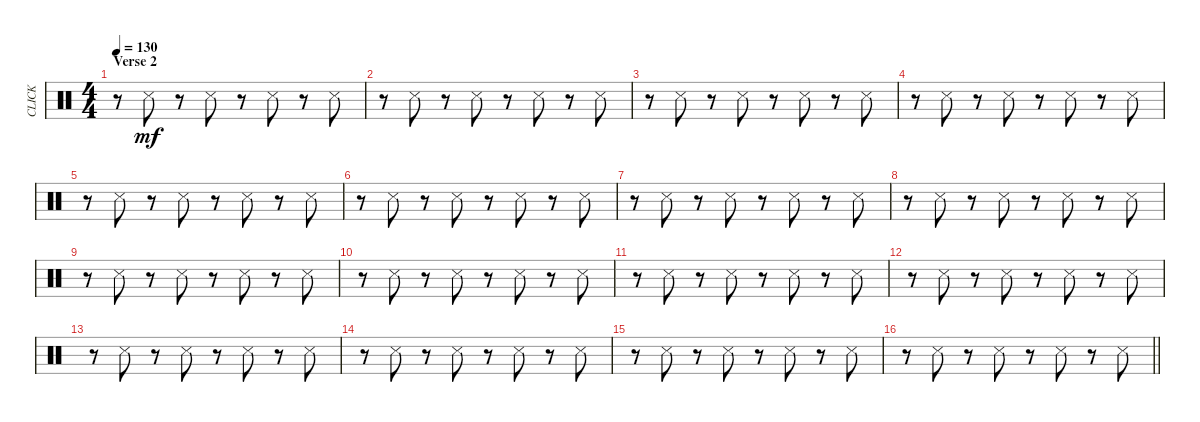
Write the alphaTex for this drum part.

\track ("CLICK" "CLICK") {instrument percussion}
\staff {score}
\articulation defaults
\ts (4 4)
\section ("" "Verse 2")
\tempo 130
\clef neutral
\ks c
r.8{dy mf} "Snare (side stick) 3".8 r.8 "Snare (side stick) 3".8 r.8 "Snare (side stick) 3".8 r.8 "Snare (side stick) 3".8 |
r.8 "Snare (side stick) 3".8 r.8 "Snare (side stick) 3".8 r.8 "Snare (side stick) 3".8 r.8 "Snare (side stick) 3".8 |
r.8 "Snare (side stick) 3".8 r.8 "Snare (side stick) 3".8 r.8 "Snare (side stick) 3".8 r.8 "Snare (side stick) 3".8 |
r.8 "Snare (side stick) 3".8 r.8 "Snare (side stick) 3".8 r.8 "Snare (side stick) 3".8 r.8 "Snare (side stick) 3".8 |
r.8 "Snare (side stick) 3".8 r.8 "Snare (side stick) 3".8 r.8 "Snare (side stick) 3".8 r.8 "Snare (side stick) 3".8 |
r.8 "Snare (side stick) 3".8 r.8 "Snare (side stick) 3".8 r.8 "Snare (side stick) 3".8 r.8 "Snare (side stick) 3".8 |
r.8 "Snare (side stick) 3".8 r.8 "Snare (side stick) 3".8 r.8 "Snare (side stick) 3".8 r.8 "Snare (side stick) 3".8 |
r.8 "Snare (side stick) 3".8 r.8 "Snare (side stick) 3".8 r.8 "Snare (side stick) 3".8 r.8 "Snare (side stick) 3".8 |
r.8 "Snare (side stick) 3".8 r.8 "Snare (side stick) 3".8 r.8 "Snare (side stick) 3".8 r.8 "Snare (side stick) 3".8 |
r.8 "Snare (side stick) 3".8 r.8 "Snare (side stick) 3".8 r.8 "Snare (side stick) 3".8 r.8 "Snare (side stick) 3".8 |
r.8 "Snare (side stick) 3".8 r.8 "Snare (side stick) 3".8 r.8 "Snare (side stick) 3".8 r.8 "Snare (side stick) 3".8 |
r.8 "Snare (side stick) 3".8 r.8 "Snare (side stick) 3".8 r.8 "Snare (side stick) 3".8 r.8 "Snare (side stick) 3".8 |
r.8 "Snare (side stick) 3".8 r.8 "Snare (side stick) 3".8 r.8 "Snare (side stick) 3".8 r.8 "Snare (side stick) 3".8 |
r.8 "Snare (side stick) 3".8 r.8 "Snare (side stick) 3".8 r.8 "Snare (side stick) 3".8 r.8 "Snare (side stick) 3".8 |
r.8 "Snare (side stick) 3".8 r.8 "Snare (side stick) 3".8 r.8 "Snare (side stick) 3".8 r.8 "Snare (side stick) 3".8 |
\barLineRight lightlight
r.8 "Snare (side stick) 3".8 r.8 "Snare (side stick) 3".8 r.8 "Snare (side stick) 3".8 r.8 "Snare (side stick) 3".8
